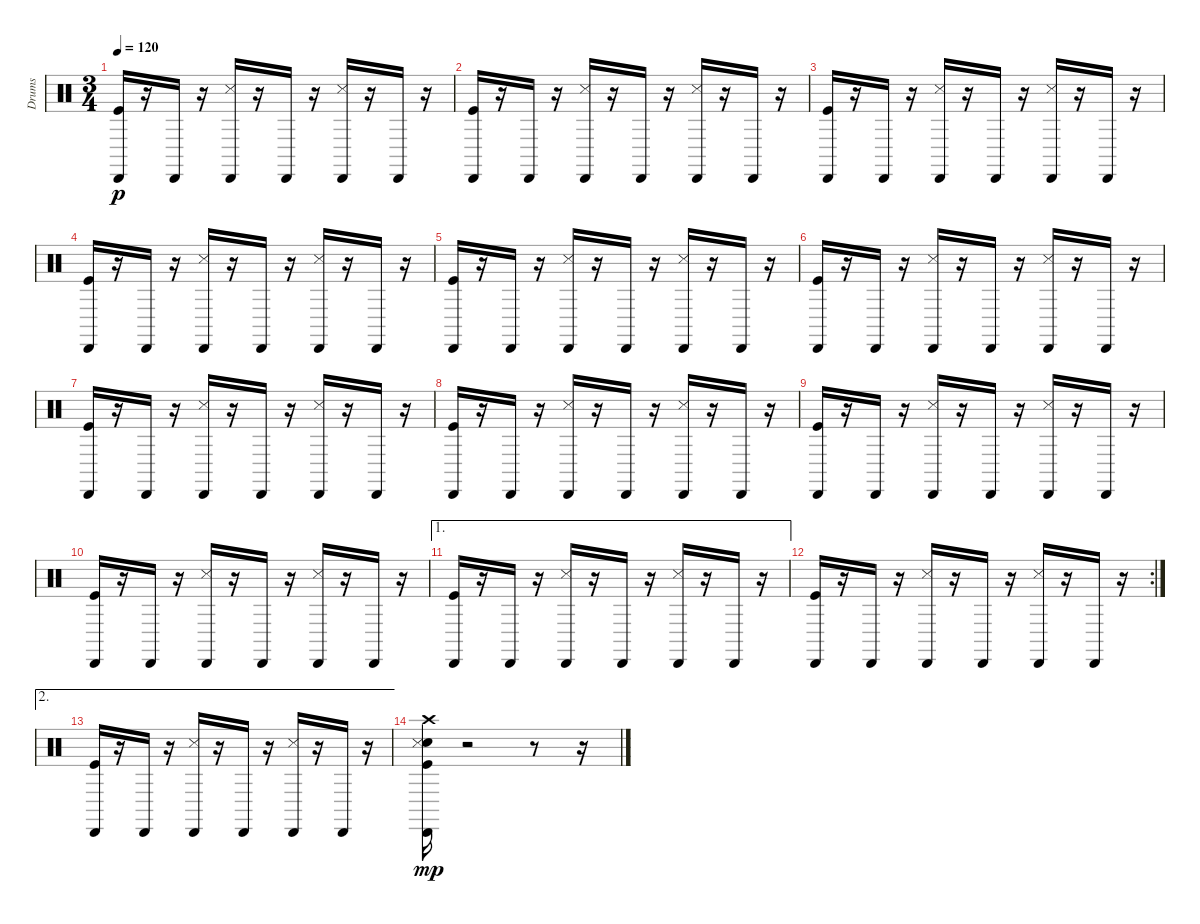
\track ("Drums" "Drums") {instrument percussion}
\staff {score}
\articulation defaults
\ts (3 4)
\tempo 120
\clef neutral
\ks c
("Kick (hit)" "Cabasa (hit)").16{dy p} r.16 "Cabasa (hit)".16 r.16 ("Snare (side stick) 3" "Cabasa (hit)").16 r.16 "Cabasa (hit)".16 r.16 ("Snare (side stick) 3" "Cabasa (hit)").16 r.16 "Cabasa (hit)".16 r.16 |
("Kick (hit)" "Cabasa (hit)").16 r.16 "Cabasa (hit)".16 r.16 ("Snare (side stick) 3" "Cabasa (hit)").16 r.16 "Cabasa (hit)".16 r.16 ("Snare (side stick) 3" "Cabasa (hit)").16 r.16 "Cabasa (hit)".16 r.16 |
("Kick (hit)" "Cabasa (hit)").16 r.16 "Cabasa (hit)".16 r.16 ("Snare (side stick) 3" "Cabasa (hit)").16 r.16 "Cabasa (hit)".16 r.16 ("Snare (side stick) 3" "Cabasa (hit)").16 r.16 "Cabasa (hit)".16 r.16 |
("Kick (hit)" "Cabasa (hit)").16 r.16 "Cabasa (hit)".16 r.16 ("Snare (side stick) 3" "Cabasa (hit)").16 r.16 "Cabasa (hit)".16 r.16 ("Snare (side stick) 3" "Cabasa (hit)").16 r.16 "Cabasa (hit)".16 r.16 |
("Kick (hit)" "Cabasa (hit)").16 r.16 "Cabasa (hit)".16 r.16 ("Snare (side stick) 3" "Cabasa (hit)").16 r.16 "Cabasa (hit)".16 r.16 ("Snare (side stick) 3" "Cabasa (hit)").16 r.16 "Cabasa (hit)".16 r.16 |
("Kick (hit)" "Cabasa (hit)").16 r.16 "Cabasa (hit)".16 r.16 ("Snare (side stick) 3" "Cabasa (hit)").16 r.16 "Cabasa (hit)".16 r.16 ("Snare (side stick) 3" "Cabasa (hit)").16 r.16 "Cabasa (hit)".16 r.16 |
("Kick (hit)" "Cabasa (hit)").16 r.16 "Cabasa (hit)".16 r.16 ("Snare (side stick) 3" "Cabasa (hit)").16 r.16 "Cabasa (hit)".16 r.16 ("Snare (side stick) 3" "Cabasa (hit)").16 r.16 "Cabasa (hit)".16 r.16 |
("Kick (hit)" "Cabasa (hit)").16 r.16 "Cabasa (hit)".16 r.16 ("Snare (side stick) 3" "Cabasa (hit)").16 r.16 "Cabasa (hit)".16 r.16 ("Snare (side stick) 3" "Cabasa (hit)").16 r.16 "Cabasa (hit)".16 r.16 |
("Kick (hit)" "Cabasa (hit)").16 r.16 "Cabasa (hit)".16 r.16 ("Snare (side stick) 3" "Cabasa (hit)").16 r.16 "Cabasa (hit)".16 r.16 ("Snare (side stick) 3" "Cabasa (hit)").16 r.16 "Cabasa (hit)".16 r.16 |
("Kick (hit)" "Cabasa (hit)").16 r.16 "Cabasa (hit)".16 r.16 ("Snare (side stick) 3" "Cabasa (hit)").16 r.16 "Cabasa (hit)".16 r.16 ("Snare (side stick) 3" "Cabasa (hit)").16 r.16 "Cabasa (hit)".16 r.16 |
\ae 1
("Kick (hit)" "Cabasa (hit)").16 r.16 "Cabasa (hit)".16 r.16 ("Snare (side stick) 3" "Cabasa (hit)").16 r.16 "Cabasa (hit)".16 r.16 ("Snare (side stick) 3" "Cabasa (hit)").16 r.16 "Cabasa (hit)".16 r.16 |
\rc 2
("Kick (hit)" "Cabasa (hit)").16 r.16 "Cabasa (hit)".16 r.16 ("Snare (side stick) 3" "Cabasa (hit)").16 r.16 "Cabasa (hit)".16 r.16 ("Snare (side stick) 3" "Cabasa (hit)").16 r.16 "Cabasa (hit)".16 r.16 |
\ae 2
("Kick (hit)" "Cabasa (hit)").16 r.16 "Cabasa (hit)".16 r.16 ("Snare (side stick) 3" "Cabasa (hit)").16 r.16 "Cabasa (hit)".16 r.16 ("Snare (side stick) 3" "Cabasa (hit)").16 r.16 "Cabasa (hit)".16 r.16 |
("Kick (hit)" "Snare (hit) 2" "Snare (side stick) 3" "Crash high (hit)" "Cabasa (hit)").16{dy mp} r.2 r.8 r.16
